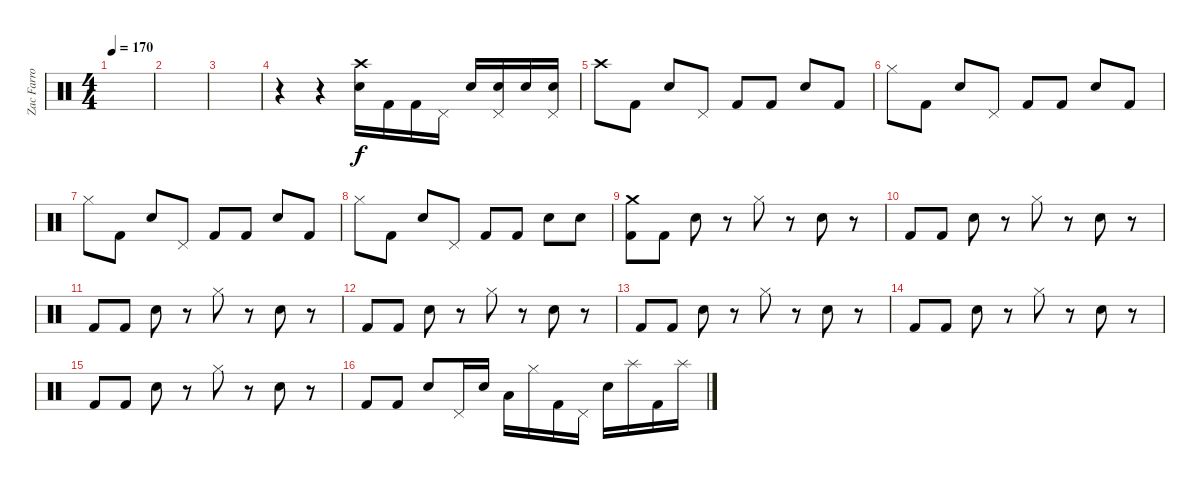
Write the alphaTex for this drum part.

\track ("Zac Farro Drums" "Zac Farro ") {instrument percussion}
\staff {score}
\articulation defaults
\ts (4 4)
\tempo 170
\clef neutral
\ks c
|
|
|
r.4 r.4 ("Crash high (hit)" "Electric Snare (hit)").16 "Kick (hit) 2".16 "Kick (hit) 2".16 "Pedal Hi-Hat (hit)".16 "Electric Snare (hit)".16 ("Pedal Hi-Hat (hit)" "Electric Snare (hit)").16 "Electric Snare (hit)".16 ("Pedal Hi-Hat (hit)" "Electric Snare (hit)").16 |
"Crash high (hit)".8 "Kick (hit) 2".8 "Electric Snare (hit)".8 "Pedal Hi-Hat (hit)".8 "Kick (hit) 2".8 "Kick (hit) 2".8 "Electric Snare (hit)".8 "Kick (hit) 2".8 |
"Hi-Hat (closed)".8 "Kick (hit) 2".8 "Electric Snare (hit)".8 "Pedal Hi-Hat (hit)".8 "Kick (hit) 2".8 "Kick (hit) 2".8 "Electric Snare (hit)".8 "Kick (hit) 2".8 |
"Hi-Hat (closed)".8 "Kick (hit) 2".8 "Electric Snare (hit)".8 "Pedal Hi-Hat (hit)".8 "Kick (hit) 2".8 "Kick (hit) 2".8 "Electric Snare (hit)".8 "Kick (hit) 2".8 |
"Hi-Hat (closed)".8 "Kick (hit) 2".8 "Electric Snare (hit)".8 "Pedal Hi-Hat (hit)".8 "Kick (hit) 2".8 "Kick (hit) 2".8 "Electric Snare (hit)".8 "Electric Snare (hit)".8 |
("Crash medium (hit)" "Kick (hit) 2").8 "Kick (hit) 2".8 "Electric Snare (hit)".8 r.8 "Hi-Hat (closed)".8 r.8 "Electric Snare (hit)".8 r.8 |
"Kick (hit) 2".8 "Kick (hit) 2".8 "Electric Snare (hit)".8 r.8 "Hi-Hat (closed)".8 r.8 "Electric Snare (hit)".8 r.8 |
"Kick (hit) 2".8 "Kick (hit) 2".8 "Electric Snare (hit)".8 r.8 "Hi-Hat (closed)".8 r.8 "Electric Snare (hit)".8 r.8 |
"Kick (hit) 2".8 "Kick (hit) 2".8 "Electric Snare (hit)".8 r.8 "Hi-Hat (closed)".8 r.8 "Electric Snare (hit)".8 r.8 |
"Kick (hit) 2".8 "Kick (hit) 2".8 "Electric Snare (hit)".8 r.8 "Hi-Hat (closed)".8 r.8 "Electric Snare (hit)".8 r.8 |
"Kick (hit) 2".8 "Kick (hit) 2".8 "Electric Snare (hit)".8 r.8 "Hi-Hat (closed)".8 r.8 "Electric Snare (hit)".8 r.8 |
"Kick (hit) 2".8 "Kick (hit) 2".8 "Electric Snare (hit)".8 r.8 "Hi-Hat (closed)".8 r.8 "Electric Snare (hit)".8 r.8 |
"Kick (hit) 2".8 "Kick (hit) 2".8 "Electric Snare (hit)".8 "Pedal Hi-Hat (hit)".16 "Electric Snare (hit)".16 "Low Tom (hit)".16 "Hi-Hat (closed)".16 "Kick (hit) 2".16 "Pedal Hi-Hat (hit)".16 "Electric Snare (hit)".16 "Splash (hit)".16 "Kick (hit) 2".16 "Splash (hit)".16
